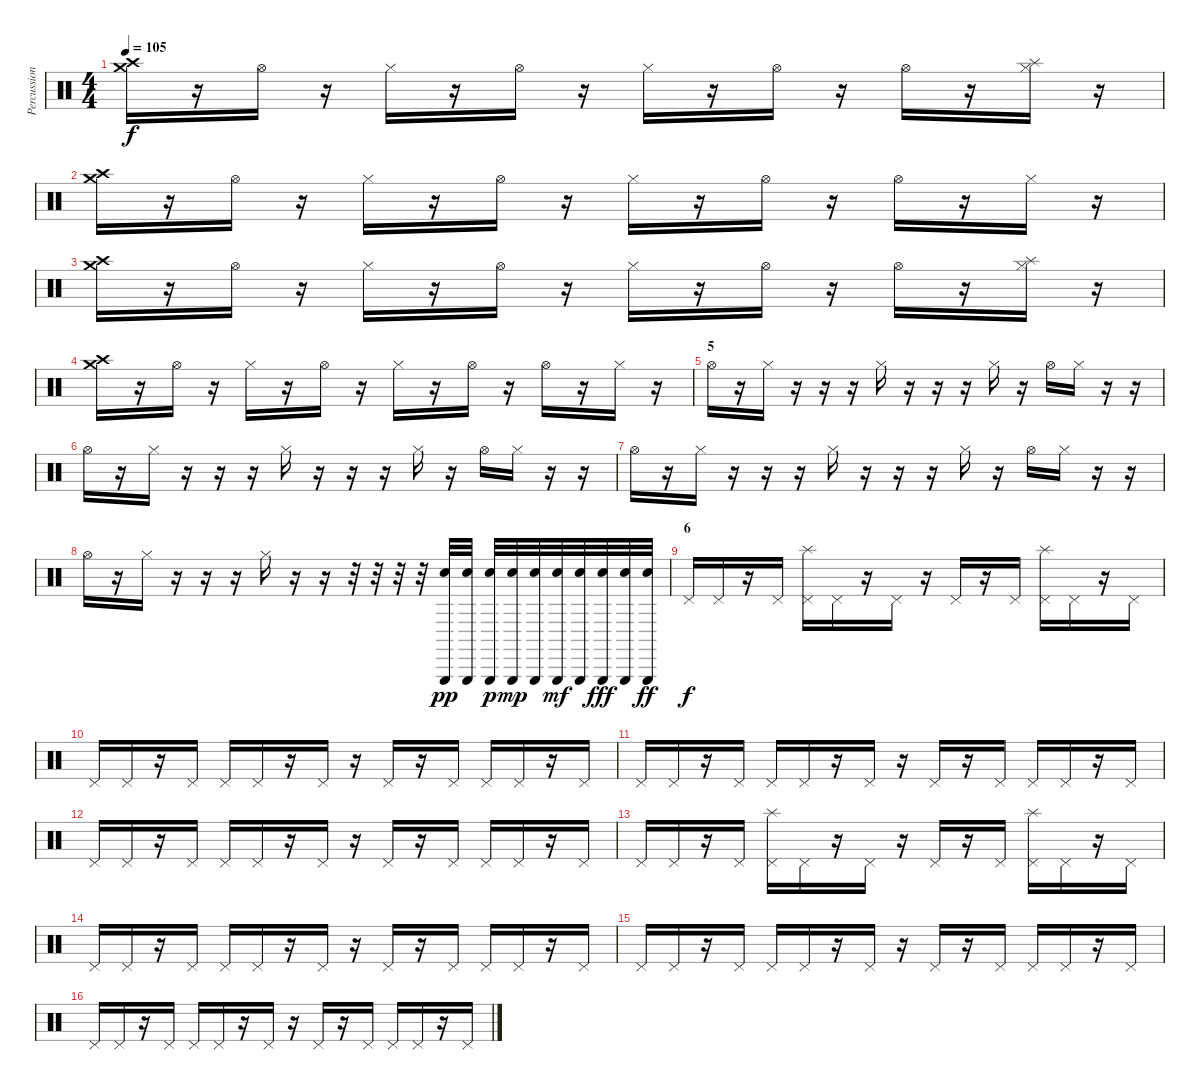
\track ("Percussions+(scratchs Dj ombre)" "Percussion") {instrument percussion}
\staff {score}
\articulation defaults
\ts (4 4)
\tempo 105
\clef neutral
\ks c
("Crash high (hit)" "Crash medium (hit)").16{dy f} r.16 "Hi-Hat (open)".16 r.16 "Hi-Hat (closed)".16 r.16 "Hi-Hat (open)".16 r.16 "Hi-Hat (closed)".16 r.16 "Hi-Hat (open)".16 r.16 "Hi-Hat (open)".16 r.16 ("Hi-Hat (closed)" "Splash (hit)").16 r.16 |
("Crash high (hit)" "Crash medium (hit)").16 r.16 "Hi-Hat (open)".16 r.16 "Hi-Hat (closed)".16 r.16 "Hi-Hat (open)".16 r.16 "Hi-Hat (closed)".16 r.16 "Hi-Hat (open)".16 r.16 "Hi-Hat (open)".16 r.16 "Hi-Hat (closed)".16 r.16 |
("Crash high (hit)" "Crash medium (hit)").16 r.16 "Hi-Hat (open)".16 r.16 "Hi-Hat (closed)".16 r.16 "Hi-Hat (open)".16 r.16 "Hi-Hat (closed)".16 r.16 "Hi-Hat (open)".16 r.16 "Hi-Hat (open)".16 r.16 ("Hi-Hat (closed)" "Splash (hit)").16 r.16 |
("Crash high (hit)" "Crash medium (hit)").16 r.16 "Hi-Hat (open)".16 r.16 "Hi-Hat (closed)".16 r.16 "Hi-Hat (open)".16 r.16 "Hi-Hat (closed)".16 r.16 "Hi-Hat (open)".16 r.16 "Hi-Hat (open)".16 r.16 "Hi-Hat (closed)".16 r.16 |
\section ("" "5")
"Hi-Hat (open)".16 r.16 "Hi-Hat (closed)".16 r.16 r.16 r.16 "Hi-Hat (closed)".16 r.16 r.16 r.16 "Hi-Hat (closed)".16 r.16 "Hi-Hat (open)".16 "Hi-Hat (closed)".16 r.16 r.16 |
"Hi-Hat (open)".16 r.16 "Hi-Hat (closed)".16 r.16 r.16 r.16 "Hi-Hat (closed)".16 r.16 r.16 r.16 "Hi-Hat (closed)".16 r.16 "Hi-Hat (open)".16 "Hi-Hat (closed)".16 r.16 r.16 |
"Hi-Hat (open)".16 r.16 "Hi-Hat (closed)".16 r.16 r.16 r.16 "Hi-Hat (closed)".16 r.16 r.16 r.16 "Hi-Hat (closed)".16 r.16 "Hi-Hat (open)".16 "Hi-Hat (closed)".16 r.16 r.16 |
"Hi-Hat (open)".16 r.16 "Hi-Hat (closed)".16 r.16 r.16 r.16 "Hi-Hat (closed)".16 r.16 r.16 r.32 r.32 r.32 r.32 ("Triangle (hit)" "Electric Snare (hit)").32{dy pp} ("Triangle (hit)" "Electric Snare (hit)").32 ("Triangle (hit)" "Electric Snare (hit)").32{dy p} ("Triangle (hit)" "Electric Snare (hit)").32{dy mp} ("Triangle (hit)" "Electric Snare (hit)").32 ("Triangle (hit)" "Electric Snare (hit)").32{dy mf} ("Triangle (hit)" "Electric Snare (hit)").32 ("Triangle (hit)" "Electric Snare (hit)").32{dy fff} ("Triangle (hit)" "Electric Snare (hit)").32 ("Triangle (hit)" "Electric Snare (hit)").32{dy ff} |
\section ("" "6")
"Pedal Hi-Hat (hit)".16{dy f} "Pedal Hi-Hat (hit)".16 r.16 "Pedal Hi-Hat (hit)".16 ("Pedal Hi-Hat (hit)" "Splash (hit)").16{volume 10 balance 16} "Pedal Hi-Hat (hit)".16{volume 10 balance 8} r.16 "Pedal Hi-Hat (hit)".16 r.16 "Pedal Hi-Hat (hit)".16 r.16 "Pedal Hi-Hat (hit)".16 ("Pedal Hi-Hat (hit)" "Splash (hit)").16{balance 0} "Pedal Hi-Hat (hit)".16{balance 8} r.16 "Pedal Hi-Hat (hit)".16 |
"Pedal Hi-Hat (hit)".16 "Pedal Hi-Hat (hit)".16 r.16 "Pedal Hi-Hat (hit)".16 "Pedal Hi-Hat (hit)".16 "Pedal Hi-Hat (hit)".16 r.16 "Pedal Hi-Hat (hit)".16 r.16 "Pedal Hi-Hat (hit)".16 r.16 "Pedal Hi-Hat (hit)".16 "Pedal Hi-Hat (hit)".16 "Pedal Hi-Hat (hit)".16 r.16 "Pedal Hi-Hat (hit)".16 |
"Pedal Hi-Hat (hit)".16 "Pedal Hi-Hat (hit)".16 r.16 "Pedal Hi-Hat (hit)".16 "Pedal Hi-Hat (hit)".16 "Pedal Hi-Hat (hit)".16 r.16 "Pedal Hi-Hat (hit)".16 r.16 "Pedal Hi-Hat (hit)".16 r.16 "Pedal Hi-Hat (hit)".16 "Pedal Hi-Hat (hit)".16 "Pedal Hi-Hat (hit)".16 r.16 "Pedal Hi-Hat (hit)".16 |
"Pedal Hi-Hat (hit)".16 "Pedal Hi-Hat (hit)".16 r.16 "Pedal Hi-Hat (hit)".16 "Pedal Hi-Hat (hit)".16 "Pedal Hi-Hat (hit)".16 r.16 "Pedal Hi-Hat (hit)".16 r.16 "Pedal Hi-Hat (hit)".16 r.16 "Pedal Hi-Hat (hit)".16 "Pedal Hi-Hat (hit)".16 "Pedal Hi-Hat (hit)".16 r.16 "Pedal Hi-Hat (hit)".16 |
"Pedal Hi-Hat (hit)".16 "Pedal Hi-Hat (hit)".16 r.16 "Pedal Hi-Hat (hit)".16 ("Pedal Hi-Hat (hit)" "Splash (hit)").16{volume 10 balance 16} "Pedal Hi-Hat (hit)".16{volume 10 balance 8} r.16 "Pedal Hi-Hat (hit)".16 r.16 "Pedal Hi-Hat (hit)".16 r.16 "Pedal Hi-Hat (hit)".16 ("Pedal Hi-Hat (hit)" "Splash (hit)").16{balance 0} "Pedal Hi-Hat (hit)".16{balance 8} r.16 "Pedal Hi-Hat (hit)".16 |
"Pedal Hi-Hat (hit)".16 "Pedal Hi-Hat (hit)".16 r.16 "Pedal Hi-Hat (hit)".16 "Pedal Hi-Hat (hit)".16 "Pedal Hi-Hat (hit)".16 r.16 "Pedal Hi-Hat (hit)".16 r.16 "Pedal Hi-Hat (hit)".16 r.16 "Pedal Hi-Hat (hit)".16 "Pedal Hi-Hat (hit)".16 "Pedal Hi-Hat (hit)".16 r.16 "Pedal Hi-Hat (hit)".16 |
"Pedal Hi-Hat (hit)".16 "Pedal Hi-Hat (hit)".16 r.16 "Pedal Hi-Hat (hit)".16 "Pedal Hi-Hat (hit)".16 "Pedal Hi-Hat (hit)".16 r.16 "Pedal Hi-Hat (hit)".16 r.16 "Pedal Hi-Hat (hit)".16 r.16 "Pedal Hi-Hat (hit)".16 "Pedal Hi-Hat (hit)".16 "Pedal Hi-Hat (hit)".16 r.16 "Pedal Hi-Hat (hit)".16 |
"Pedal Hi-Hat (hit)".16 "Pedal Hi-Hat (hit)".16 r.16 "Pedal Hi-Hat (hit)".16 "Pedal Hi-Hat (hit)".16 "Pedal Hi-Hat (hit)".16 r.16 "Pedal Hi-Hat (hit)".16 r.16 "Pedal Hi-Hat (hit)".16 r.16 "Pedal Hi-Hat (hit)".16 "Pedal Hi-Hat (hit)".16 "Pedal Hi-Hat (hit)".16 r.16 "Pedal Hi-Hat (hit)".16
